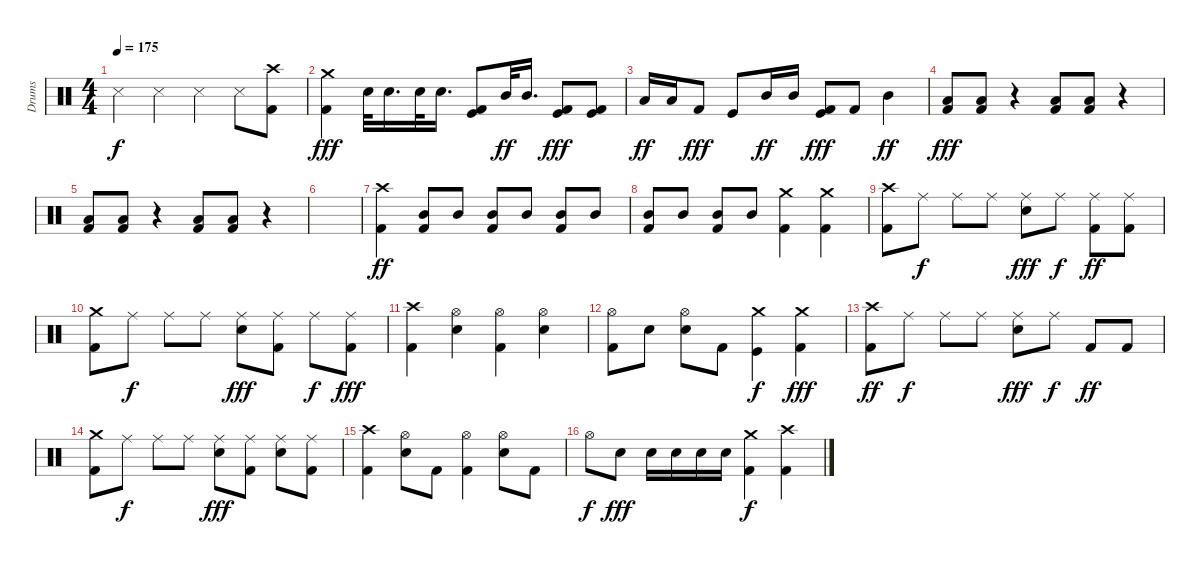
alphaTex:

\track ("Drums" "Drums") {instrument percussion}
\staff {score}
\articulation defaults
\ts (4 4)
\tempo 175
\clef neutral
\ks c "Snare (side stick) 3".4{dy f} "Snare (side stick) 3".4 "Snare (side stick) 3".4 "Snare (side stick) 3".8
("Crash high (hit)" "Kick (hit) 2").8 |
("Crash medium (hit)" "Kick (hit) 2").4{dy fff} "Snare (hit) 2".32 "Snare (hit) 2".16{d} "Snare (hit) 2".32 "Snare (hit) 2".16{d} ("Kick (hit)" "Kick (hit) 2").8 "Mid Tom (hit)".32{dy ff} "Mid Tom (hit)".16{d} ("Kick (hit)" "Kick (hit) 2").8{dy fff} ("Kick (hit)" "Kick (hit) 2").8 |
"Low Tom (hit)".16{dy ff} "Low Tom (hit)".16 "Kick (hit) 2".8{dy fff} "Kick (hit)".8 "Mid Tom (hit)".16{dy ff} "Mid Tom (hit)".16 ("Kick (hit)" "Kick (hit) 2").8{dy fff} "Kick (hit) 2".8 "Mid Tom (hit)".4{dy ff} |
("Low Tom (hit)" "Kick (hit) 2").8{dy fff} ("Low Tom (hit)" "Kick (hit) 2").8 r.4 ("Low Tom (hit)" "Kick (hit) 2").8 ("Low Tom (hit)" "Kick (hit) 2").8 r.4 |
("Low Tom (hit)" "Kick (hit) 2").8 ("Low Tom (hit)" "Kick (hit) 2").8 r.4 ("Low Tom (hit)" "Kick (hit) 2").8 ("Low Tom (hit)" "Kick (hit) 2").8 r.4 |
|
("Crash high (hit)" "Kick (hit) 2").4{dy ff} ("Mid Tom (hit)" "Kick (hit) 2").8 "Mid Tom (hit)".8 ("Mid Tom (hit)" "Kick (hit) 2").8 "Mid Tom (hit)".8 ("Mid Tom (hit)" "Kick (hit) 2").8 "Mid Tom (hit)".8 |
("Mid Tom (hit)" "Kick (hit) 2").8 "Mid Tom (hit)".8 ("Mid Tom (hit)" "Kick (hit) 2").8 "Mid Tom (hit)".8 ("Crash medium (hit)" "Kick (hit) 2").4 ("Crash medium (hit)" "Kick (hit) 2").4 |
("Crash high (hit)" "Kick (hit) 2").8 "Ride (middle)".8{dy f} "Ride (middle)".8 "Ride (middle)".8 ("Ride (middle)" "Snare (hit) 2").8{dy fff} "Ride (middle)".8{dy f} ("Ride (middle)" "Kick (hit) 2").8{dy ff} ("Ride (middle)" "Kick (hit) 2").8 |
("Crash medium (hit)" "Kick (hit) 2").8 "Ride (middle)".8{dy f} "Ride (middle)".8 "Ride (middle)".8 ("Ride (middle)" "Snare (hit) 2").8{dy fff} ("Ride (middle)" "Kick (hit) 2").8 "Ride (middle)".8{dy f} ("Ride (middle)" "Kick (hit) 2").8{dy fff} |
("Crash high (hit)" "Kick (hit) 2").4 ("Hi-Hat (open)" "Snare (hit) 2").4 ("Hi-Hat (open)" "Kick (hit) 2").4 ("Hi-Hat (open)" "Snare (hit) 2").4 |
("Hi-Hat (open)" "Kick (hit) 2").8 "Snare (hit) 2".8 ("Hi-Hat (open)" "Snare (hit) 2").8 "Kick (hit) 2".8 ("Crash medium (hit)" "Kick (hit)").4{dy f} ("Crash medium (hit)" "Kick (hit) 2").4{dy fff} |
("Crash high (hit)" "Kick (hit) 2").8{dy ff} "Ride (middle)".8{dy f} "Ride (middle)".8 "Ride (middle)".8 ("Ride (middle)" "Snare (hit) 2").8{dy fff} "Ride (middle)".8{dy f} "Kick (hit) 2".8{dy ff} "Kick (hit) 2".8 |
("Crash medium (hit)" "Kick (hit) 2").8 "Ride (middle)".8{dy f} "Ride (middle)".8 "Ride (middle)".8 ("Ride (middle)" "Snare (hit) 2").8{dy fff} ("Ride (middle)" "Kick (hit) 2").8 ("Ride (middle)" "Snare (hit) 2").8 ("Ride (middle)" "Kick (hit) 2").8 |
("Crash high (hit)" "Kick (hit) 2").4 ("Hi-Hat (open)" "Snare (hit) 2").8 "Kick (hit) 2".8 ("Hi-Hat (open)" "Kick (hit) 2").4 ("Hi-Hat (open)" "Snare (hit) 2").8 "Kick (hit) 2".8 |
"Hi-Hat (open)".8{dy f} "Snare (hit) 2".8{dy fff} "Snare (hit) 2".16 "Snare (hit) 2".16 "Snare (hit) 2".16 "Snare (hit) 2".16 ("Crash medium (hit)" "Kick (hit) 2").4{dy f} ("Crash high (hit)" "Kick (hit) 2").4
